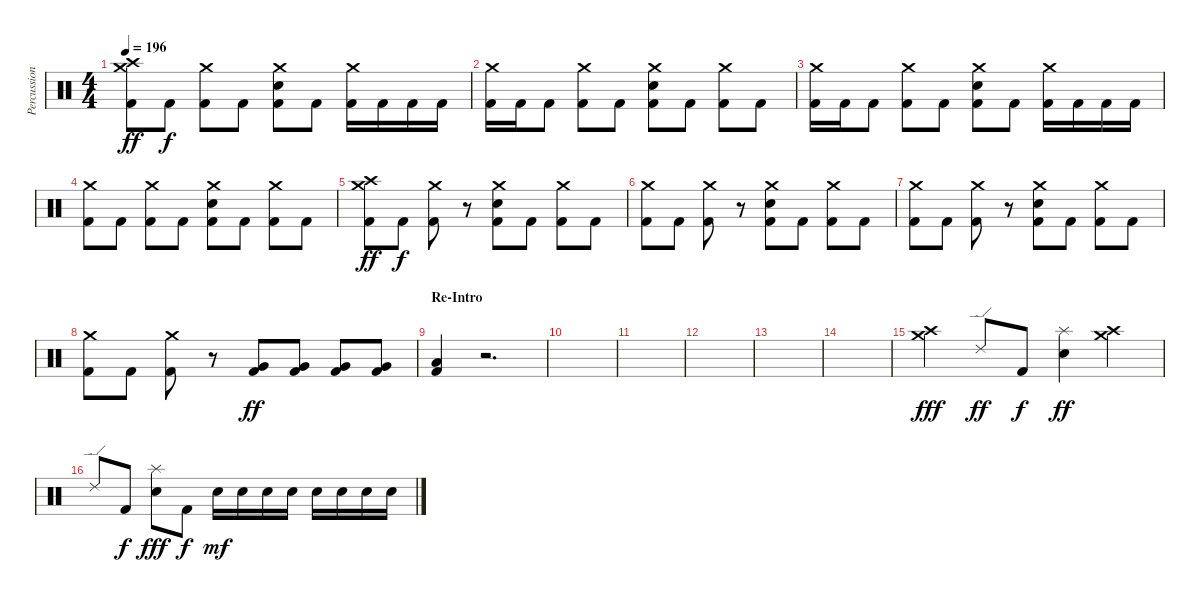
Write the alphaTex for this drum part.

\track ("Percussions" "Percussion") {instrument percussion}
\staff {score}
\articulation defaults
\ts (4 4)
\tempo 196
\clef neutral
\ks c
("Crash high (hit)" "Crash medium (hit)" "Kick (hit) 2").8{dy ff} "Kick (hit) 2".8{dy f} ("Crash medium (hit)" "Kick (hit) 2").8 "Kick (hit) 2".8 ("Crash medium (hit)" "Electric Snare (hit)" "Kick (hit) 2").8 "Kick (hit) 2".8 ("Crash medium (hit)" "Kick (hit) 2").16 "Kick (hit) 2".16 "Kick (hit) 2".16 "Kick (hit) 2".16 |
("Crash medium (hit)" "Kick (hit) 2").16 "Kick (hit) 2".16 "Kick (hit) 2".8 ("Crash medium (hit)" "Kick (hit) 2").8 "Kick (hit) 2".8 ("Crash medium (hit)" "Electric Snare (hit)" "Kick (hit) 2").8 "Kick (hit) 2".8 ("Crash medium (hit)" "Kick (hit) 2").8 "Kick (hit) 2".8 |
("Crash medium (hit)" "Kick (hit) 2").16 "Kick (hit) 2".16 "Kick (hit) 2".8 ("Crash medium (hit)" "Kick (hit) 2").8 "Kick (hit) 2".8 ("Crash medium (hit)" "Electric Snare (hit)" "Kick (hit) 2").8 "Kick (hit) 2".8 ("Crash medium (hit)" "Kick (hit) 2").16 "Kick (hit) 2".16 "Kick (hit) 2".16 "Kick (hit) 2".16 |
("Crash medium (hit)" "Kick (hit) 2").8 "Kick (hit) 2".8 ("Crash medium (hit)" "Kick (hit) 2").8 "Kick (hit) 2".8 ("Crash medium (hit)" "Electric Snare (hit)" "Kick (hit) 2").8 "Kick (hit) 2".8 ("Crash medium (hit)" "Kick (hit) 2").8 "Kick (hit) 2".8 |
("Crash high (hit)" "Crash medium (hit)" "Kick (hit) 2").8{dy ff} "Kick (hit) 2".8{dy f} ("Crash medium (hit)" "Kick (hit) 2").8 r.8 ("Crash medium (hit)" "Electric Snare (hit)" "Kick (hit) 2").8 "Kick (hit) 2".8 ("Crash medium (hit)" "Kick (hit) 2").8 "Kick (hit) 2".8 |
("Crash medium (hit)" "Kick (hit) 2").8 "Kick (hit) 2".8 ("Crash medium (hit)" "Kick (hit) 2").8 r.8 ("Crash medium (hit)" "Electric Snare (hit)" "Kick (hit) 2").8 "Kick (hit) 2".8 ("Crash medium (hit)" "Kick (hit) 2").8 "Kick (hit) 2".8 |
("Crash medium (hit)" "Kick (hit) 2").8 "Kick (hit) 2".8 ("Crash medium (hit)" "Kick (hit) 2").8 r.8 ("Crash medium (hit)" "Electric Snare (hit)" "Kick (hit) 2").8 "Kick (hit) 2".8 ("Crash medium (hit)" "Kick (hit) 2").8 "Kick (hit) 2".8 |
("Crash medium (hit)" "Kick (hit) 2").8 "Kick (hit) 2".8 ("Crash medium (hit)" "Kick (hit) 2").8 r.8 ("Very Low Tom (hit)" "Kick (hit) 2").8{dy ff} ("Very Low Tom (hit)" "Kick (hit) 2").8 ("Very Low Tom (hit)" "Kick (hit) 2").8 ("Very Low Tom (hit)" "Kick (hit) 2").8 |
\section ("" "Re-Intro")
("Low Tom (hit)" "Kick (hit) 2").4 r.2{d} |
|
|
|
|
|
("Crash medium (hit)" "Crash high (hit)").4{dy fff} "Ride (edge) 2".8{dy ff} "Kick (hit) 2".8{dy f} ("Splash (hit)" "Electric Snare (hit)").4{dy ff} ("Crash medium (hit)" "Crash high (hit)").4 |
"Ride (edge) 2".8 "Kick (hit) 2".8{dy f} ("Splash (hit)" "Electric Snare (hit)").8{dy fff} "Kick (hit) 2".8{dy f} "Electric Snare (hit)".16{dy mf} "Electric Snare (hit)".16 "Electric Snare (hit)".16 "Electric Snare (hit)".16 "Electric Snare (hit)".16 "Electric Snare (hit)".16 "Electric Snare (hit)".16 "Electric Snare (hit)".16
